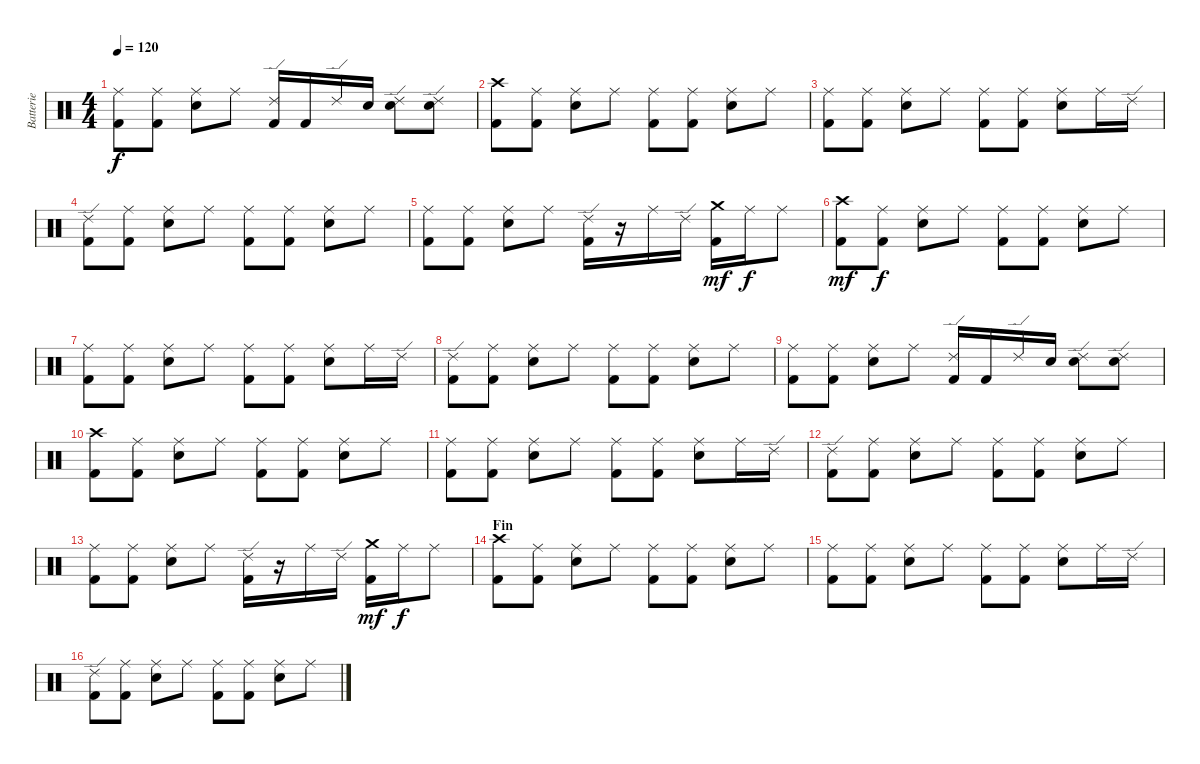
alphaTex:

\track ("Batterie" "Batterie") {instrument percussion}
\staff {score}
\articulation defaults
\ts (4 4)
\tempo 120
\clef neutral
\ks c
("Ride (middle)" "Kick (hit) 2").8{dy f} ("Ride (middle)" "Kick (hit) 2").8 ("Ride (middle)" "Snare (hit) 2").8 "Ride (middle)".8 ("Ride (edge) 2" "Kick (hit) 2").16 "Kick (hit) 2".16 "Ride (edge) 2".16 "Snare (hit) 2".16 ("Ride (edge) 2" "Snare (hit) 2").8 ("Ride (edge) 2" "Snare (hit) 2").8 |
("Crash high (hit)" "Kick (hit) 2").8 ("Ride (middle)" "Kick (hit) 2").8 ("Ride (middle)" "Snare (hit) 2").8 "Ride (middle)".8 ("Ride (middle)" "Kick (hit) 2").8 ("Ride (middle)" "Kick (hit) 2").8 ("Ride (middle)" "Snare (hit) 2").8 "Ride (middle)".8 |
("Ride (middle)" "Kick (hit) 2").8 ("Ride (middle)" "Kick (hit) 2").8 ("Ride (middle)" "Snare (hit) 2").8 "Ride (middle)".8 ("Ride (middle)" "Kick (hit) 2").8 ("Ride (middle)" "Kick (hit) 2").8 ("Ride (middle)" "Snare (hit) 2").8 "Ride (middle)".16 "Ride (edge) 2".16 |
("Ride (edge) 2" "Kick (hit) 2").8 ("Ride (middle)" "Kick (hit) 2").8 ("Ride (middle)" "Snare (hit) 2").8 "Ride (middle)".8 ("Ride (middle)" "Kick (hit) 2").8 ("Ride (middle)" "Kick (hit) 2").8 ("Ride (middle)" "Snare (hit) 2").8 "Ride (middle)".8 |
("Ride (middle)" "Kick (hit) 2").8 ("Ride (middle)" "Kick (hit) 2").8 ("Ride (middle)" "Snare (hit) 2").8 "Ride (middle)".8 ("Ride (edge) 2" "Kick (hit) 2").16 r.16 "Ride (middle)".16 "Ride (edge) 2".16 ("Crash medium (hit)" "Kick (hit) 2").16{dy mf} "Ride (middle)".16{dy f} "Ride (middle)".8 |
("Crash high (hit)" "Kick (hit) 2").8{dy mf} ("Ride (middle)" "Kick (hit) 2").8{dy f} ("Ride (middle)" "Snare (hit) 2").8 "Ride (middle)".8 ("Ride (middle)" "Kick (hit) 2").8 ("Ride (middle)" "Kick (hit) 2").8 ("Ride (middle)" "Snare (hit) 2").8 "Ride (middle)".8 |
("Ride (middle)" "Kick (hit) 2").8 ("Ride (middle)" "Kick (hit) 2").8 ("Ride (middle)" "Snare (hit) 2").8 "Ride (middle)".8 ("Ride (middle)" "Kick (hit) 2").8 ("Ride (middle)" "Kick (hit) 2").8 ("Ride (middle)" "Snare (hit) 2").8 "Ride (middle)".16 "Ride (edge) 2".16 |
("Ride (edge) 2" "Kick (hit) 2").8 ("Ride (middle)" "Kick (hit) 2").8 ("Ride (middle)" "Snare (hit) 2").8 "Ride (middle)".8 ("Ride (middle)" "Kick (hit) 2").8 ("Ride (middle)" "Kick (hit) 2").8 ("Ride (middle)" "Snare (hit) 2").8 "Ride (middle)".8 |
("Ride (middle)" "Kick (hit) 2").8 ("Ride (middle)" "Kick (hit) 2").8 ("Ride (middle)" "Snare (hit) 2").8 "Ride (middle)".8 ("Ride (edge) 2" "Kick (hit) 2").16 "Kick (hit) 2".16 "Ride (edge) 2".16 "Snare (hit) 2".16 ("Ride (edge) 2" "Snare (hit) 2").8 ("Ride (edge) 2" "Snare (hit) 2").8 |
("Crash high (hit)" "Kick (hit) 2").8 ("Ride (middle)" "Kick (hit) 2").8 ("Ride (middle)" "Snare (hit) 2").8 "Ride (middle)".8 ("Ride (middle)" "Kick (hit) 2").8 ("Ride (middle)" "Kick (hit) 2").8 ("Ride (middle)" "Snare (hit) 2").8 "Ride (middle)".8 |
("Ride (middle)" "Kick (hit) 2").8 ("Ride (middle)" "Kick (hit) 2").8 ("Ride (middle)" "Snare (hit) 2").8 "Ride (middle)".8 ("Ride (middle)" "Kick (hit) 2").8 ("Ride (middle)" "Kick (hit) 2").8 ("Ride (middle)" "Snare (hit) 2").8 "Ride (middle)".16 "Ride (edge) 2".16 |
("Ride (edge) 2" "Kick (hit) 2").8 ("Ride (middle)" "Kick (hit) 2").8 ("Ride (middle)" "Snare (hit) 2").8 "Ride (middle)".8 ("Ride (middle)" "Kick (hit) 2").8 ("Ride (middle)" "Kick (hit) 2").8 ("Ride (middle)" "Snare (hit) 2").8 "Ride (middle)".8 |
("Ride (middle)" "Kick (hit) 2").8 ("Ride (middle)" "Kick (hit) 2").8 ("Ride (middle)" "Snare (hit) 2").8 "Ride (middle)".8 ("Ride (edge) 2" "Kick (hit) 2").16 r.16 "Ride (middle)".16 "Ride (edge) 2".16 ("Crash medium (hit)" "Kick (hit) 2").16{dy mf} "Ride (middle)".16{dy f} "Ride (middle)".8 |
\section ("" "Fin")
("Crash high (hit)" "Kick (hit) 2").8 ("Ride (middle)" "Kick (hit) 2").8 ("Ride (middle)" "Snare (hit) 2").8 "Ride (middle)".8 ("Ride (middle)" "Kick (hit) 2").8 ("Ride (middle)" "Kick (hit) 2").8 ("Ride (middle)" "Snare (hit) 2").8 "Ride (middle)".8 |
("Ride (middle)" "Kick (hit) 2").8 ("Ride (middle)" "Kick (hit) 2").8 ("Ride (middle)" "Snare (hit) 2").8 "Ride (middle)".8 ("Ride (middle)" "Kick (hit) 2").8 ("Ride (middle)" "Kick (hit) 2").8 ("Ride (middle)" "Snare (hit) 2").8 "Ride (middle)".16 "Ride (edge) 2".16 |
("Ride (edge) 2" "Kick (hit) 2").8 ("Ride (middle)" "Kick (hit) 2").8 ("Ride (middle)" "Snare (hit) 2").8 "Ride (middle)".8 ("Ride (middle)" "Kick (hit) 2").8 ("Ride (middle)" "Kick (hit) 2").8 ("Ride (middle)" "Snare (hit) 2").8 "Ride (middle)".8
